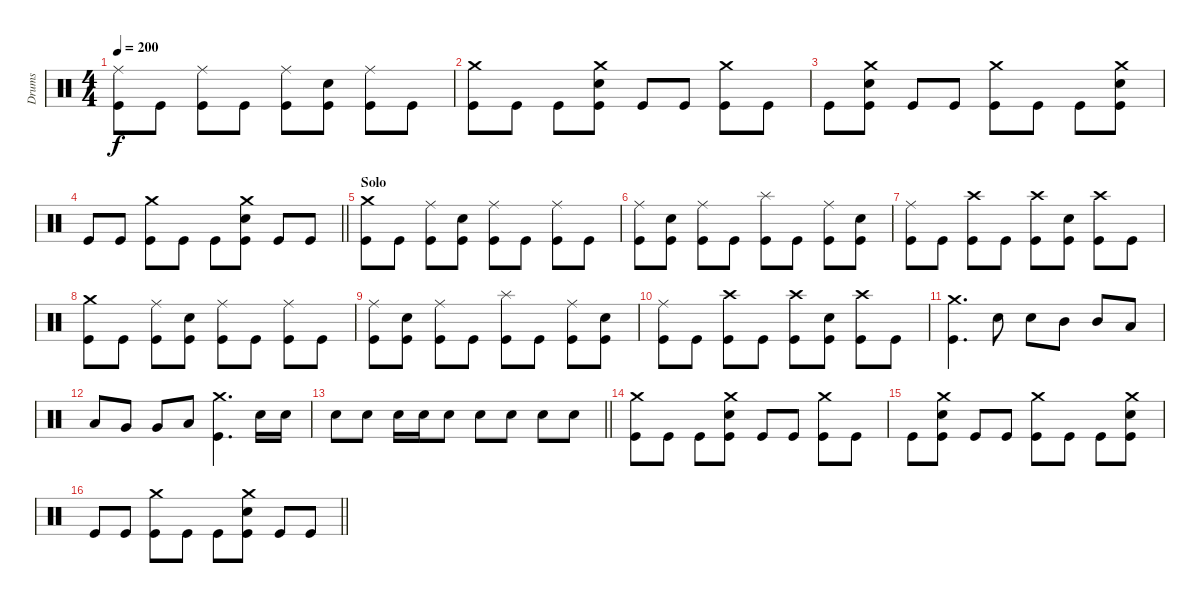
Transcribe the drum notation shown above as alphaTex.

\track ("Drums" "Drums") {instrument percussion}
\staff {score}
\articulation defaults
\ts (4 4)
\tempo 200
\clef neutral
\ks c
("Ride (middle)" "Kick (hit)").8{dy f} "Kick (hit)".8 ("Ride (middle)" "Kick (hit)").8 "Kick (hit)".8 ("Ride (middle)" "Kick (hit)").8 ("Snare (hit) 2" "Kick (hit)").8 ("Ride (middle)" "Kick (hit)").8 "Kick (hit)".8 |
("Crash medium (hit)" "Kick (hit)").8 "Kick (hit)".8 "Kick (hit)".8 ("Crash medium (hit)" "Snare (hit) 2" "Kick (hit)").8 "Kick (hit)".8 "Kick (hit)".8 ("Crash medium (hit)" "Kick (hit)").8 "Kick (hit)".8 |
"Kick (hit)".8 ("Crash medium (hit)" "Snare (hit) 2" "Kick (hit)").8 "Kick (hit)".8 "Kick (hit)".8 ("Crash medium (hit)" "Kick (hit)").8 "Kick (hit)".8 "Kick (hit)".8 ("Crash medium (hit)" "Snare (hit) 2" "Kick (hit)").8 |
\barLineRight lightlight "Kick (hit)".8 "Kick (hit)".8
("Crash medium (hit)" "Kick (hit)").8 "Kick (hit)".8 "Kick (hit)".8 ("Crash medium (hit)" "Snare (hit) 2" "Kick (hit)").8 "Kick (hit)".8 "Kick (hit)".8 |
\section ("" "Solo")
("Crash medium (hit)" "Kick (hit)").8 "Kick (hit)".8 ("Ride (middle)" "Kick (hit)").8 ("Snare (hit) 2" "Kick (hit)").8 ("Ride (middle)" "Kick (hit)").8 "Kick (hit)".8 ("Ride (middle)" "Kick (hit)").8 "Kick (hit)".8 |
("Ride (middle)" "Kick (hit)").8 ("Snare (hit) 2" "Kick (hit)").8 ("Ride (middle)" "Kick (hit)").8 "Kick (hit)".8 ("Splash (hit)" "Kick (hit)").8 "Kick (hit)".8 ("Ride (middle)" "Kick (hit)").8 ("Snare (hit) 2" "Kick (hit)").8 |
("Ride (middle)" "Kick (hit)").8 "Kick (hit)".8 ("Crash high (hit)" "Kick (hit)").8 "Kick (hit)".8 ("Crash high (hit)" "Kick (hit)").8 ("Snare (hit) 2" "Kick (hit)").8 ("Crash high (hit)" "Kick (hit)").8 "Kick (hit)".8 |
("Crash medium (hit)" "Kick (hit)").8 "Kick (hit)".8 ("Ride (middle)" "Kick (hit)").8 ("Snare (hit) 2" "Kick (hit)").8 ("Ride (middle)" "Kick (hit)").8 "Kick (hit)".8 ("Ride (middle)" "Kick (hit)").8 "Kick (hit)".8 |
("Ride (middle)" "Kick (hit)").8 ("Snare (hit) 2" "Kick (hit)").8 ("Ride (middle)" "Kick (hit)").8 "Kick (hit)".8 ("Splash (hit)" "Kick (hit)").8 "Kick (hit)".8 ("Ride (middle)" "Kick (hit)").8 ("Snare (hit) 2" "Kick (hit)").8 |
("Ride (middle)" "Kick (hit)").8 "Kick (hit)".8 ("Crash high (hit)" "Kick (hit)").8 "Kick (hit)".8 ("Crash high (hit)" "Kick (hit)").8 ("Snare (hit) 2" "Kick (hit)").8 ("Crash high (hit)" "Kick (hit)").8 "Kick (hit)".8 |
("Crash medium (hit)" "Kick (hit)").4{d} "Snare (hit) 2".8 "Snare (hit) 2".8 "Mid Tom (hit)".8 "Mid Tom (hit)".8 "Low Tom (hit)".8 |
"Low Tom (hit)".8 "Very Low Tom (hit)".8 "Very Low Tom (hit)".8 "Low Floor Tom (hit)".8 ("Crash medium (hit)" "Kick (hit)").4{d} "Snare (hit) 2".16 "Snare (hit) 2".16 |
\barLineRight lightlight "Snare (hit) 2".8 "Snare (hit) 2".8 "Snare (hit) 2".16 "Snare (hit) 2".16 "Snare (hit) 2".8 "Snare (hit) 2".8 "Snare (hit) 2".8 "Snare (hit) 2".8 "Snare (hit) 2".8
|
("Crash medium (hit)" "Kick (hit)").8 "Kick (hit)".8 "Kick (hit)".8 ("Crash medium (hit)" "Snare (hit) 2" "Kick (hit)").8 "Kick (hit)".8 "Kick (hit)".8 ("Crash medium (hit)" "Kick (hit)").8 "Kick (hit)".8 |
"Kick (hit)".8 ("Crash medium (hit)" "Snare (hit) 2" "Kick (hit)").8 "Kick (hit)".8 "Kick (hit)".8 ("Crash medium (hit)" "Kick (hit)").8 "Kick (hit)".8 "Kick (hit)".8 ("Crash medium (hit)" "Snare (hit) 2" "Kick (hit)").8 |
\barLineRight lightlight "Kick (hit)".8 "Kick (hit)".8
("Crash medium (hit)" "Kick (hit)").8 "Kick (hit)".8 "Kick (hit)".8 ("Crash medium (hit)" "Snare (hit) 2" "Kick (hit)").8 "Kick (hit)".8 "Kick (hit)".8
